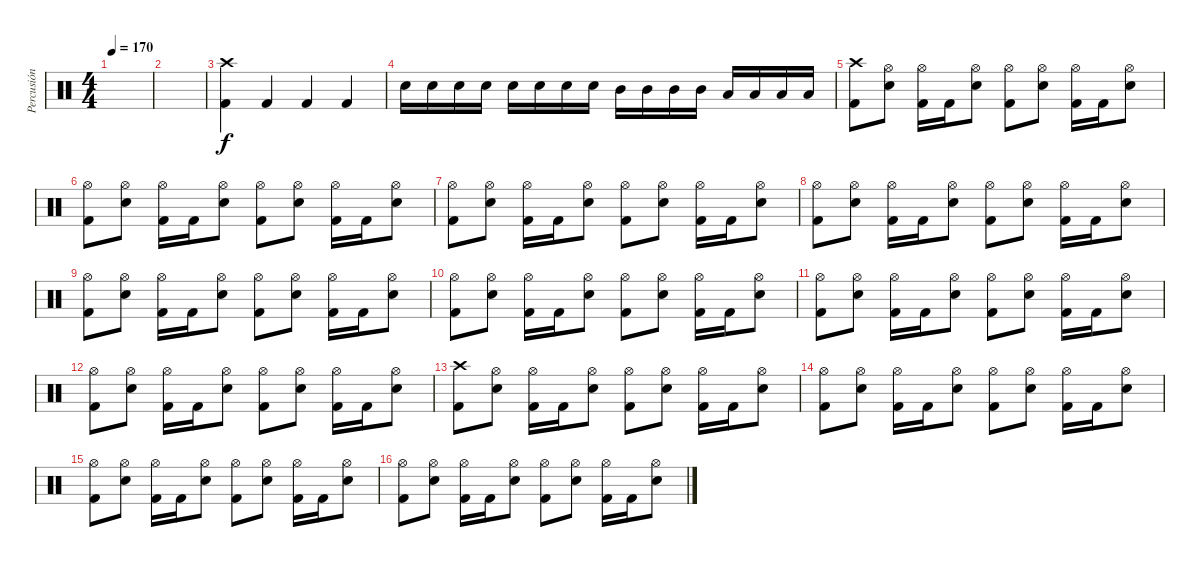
\track ("Percusión" "Percusión") {instrument percussion}
\staff {score}
\articulation defaults
\ts (4 4)
\tempo 170
\clef neutral
\ks c
|
|
("Kick (hit) 2" "Crash high (hit)").4 "Kick (hit) 2".4 "Kick (hit) 2".4 "Kick (hit) 2".4 |
"Snare (hit) 2".16 "Snare (hit) 2".16 "Snare (hit) 2".16 "Snare (hit) 2".16 "Snare (hit) 2".16 "Snare (hit) 2".16 "Snare (hit) 2".16 "Snare (hit) 2".16 "Mid Tom (hit)".16 "Mid Tom (hit)".16 "Mid Tom (hit)".16 "Mid Tom (hit)".16 "Low Tom (hit)".16 "Low Tom (hit)".16 "Low Tom (hit)".16 "Low Tom (hit)".16 |
("Kick (hit) 2" "Crash high (hit)").8 ("Snare (hit) 2" "Hi-Hat (open)").8 ("Kick (hit) 2" "Hi-Hat (open)").16 "Kick (hit) 2".16 ("Snare (hit) 2" "Hi-Hat (open)").8 ("Kick (hit) 2" "Hi-Hat (open)").8 ("Snare (hit) 2" "Hi-Hat (open)").8 ("Kick (hit) 2" "Hi-Hat (open)").16 "Kick (hit) 2".16 ("Snare (hit) 2" "Hi-Hat (open)").8 |
("Kick (hit) 2" "Hi-Hat (open)").8 ("Snare (hit) 2" "Hi-Hat (open)").8 ("Kick (hit) 2" "Hi-Hat (open)").16 "Kick (hit) 2".16 ("Snare (hit) 2" "Hi-Hat (open)").8 ("Kick (hit) 2" "Hi-Hat (open)").8 ("Snare (hit) 2" "Hi-Hat (open)").8 ("Kick (hit) 2" "Hi-Hat (open)").16 "Kick (hit) 2".16 ("Snare (hit) 2" "Hi-Hat (open)").8 |
("Kick (hit) 2" "Hi-Hat (open)").8 ("Snare (hit) 2" "Hi-Hat (open)").8 ("Kick (hit) 2" "Hi-Hat (open)").16 "Kick (hit) 2".16 ("Snare (hit) 2" "Hi-Hat (open)").8 ("Kick (hit) 2" "Hi-Hat (open)").8 ("Snare (hit) 2" "Hi-Hat (open)").8 ("Kick (hit) 2" "Hi-Hat (open)").16 "Kick (hit) 2".16 ("Snare (hit) 2" "Hi-Hat (open)").8 |
("Kick (hit) 2" "Hi-Hat (open)").8 ("Snare (hit) 2" "Hi-Hat (open)").8 ("Kick (hit) 2" "Hi-Hat (open)").16 "Kick (hit) 2".16 ("Snare (hit) 2" "Hi-Hat (open)").8 ("Kick (hit) 2" "Hi-Hat (open)").8 ("Snare (hit) 2" "Hi-Hat (open)").8 ("Kick (hit) 2" "Hi-Hat (open)").16 "Kick (hit) 2".16 ("Snare (hit) 2" "Hi-Hat (open)").8 |
("Kick (hit) 2" "Hi-Hat (open)").8 ("Snare (hit) 2" "Hi-Hat (open)").8 ("Kick (hit) 2" "Hi-Hat (open)").16 "Kick (hit) 2".16 ("Snare (hit) 2" "Hi-Hat (open)").8 ("Kick (hit) 2" "Hi-Hat (open)").8 ("Snare (hit) 2" "Hi-Hat (open)").8 ("Kick (hit) 2" "Hi-Hat (open)").16 "Kick (hit) 2".16 ("Snare (hit) 2" "Hi-Hat (open)").8 |
("Kick (hit) 2" "Hi-Hat (open)").8 ("Snare (hit) 2" "Hi-Hat (open)").8 ("Kick (hit) 2" "Hi-Hat (open)").16 "Kick (hit) 2".16 ("Snare (hit) 2" "Hi-Hat (open)").8 ("Kick (hit) 2" "Hi-Hat (open)").8 ("Snare (hit) 2" "Hi-Hat (open)").8 ("Kick (hit) 2" "Hi-Hat (open)").16 "Kick (hit) 2".16 ("Snare (hit) 2" "Hi-Hat (open)").8 |
("Kick (hit) 2" "Hi-Hat (open)").8 ("Snare (hit) 2" "Hi-Hat (open)").8 ("Kick (hit) 2" "Hi-Hat (open)").16 "Kick (hit) 2".16 ("Snare (hit) 2" "Hi-Hat (open)").8 ("Kick (hit) 2" "Hi-Hat (open)").8 ("Snare (hit) 2" "Hi-Hat (open)").8 ("Kick (hit) 2" "Hi-Hat (open)").16 "Kick (hit) 2".16 ("Snare (hit) 2" "Hi-Hat (open)").8 |
("Kick (hit) 2" "Hi-Hat (open)").8 ("Snare (hit) 2" "Hi-Hat (open)").8 ("Kick (hit) 2" "Hi-Hat (open)").16 "Kick (hit) 2".16 ("Snare (hit) 2" "Hi-Hat (open)").8 ("Kick (hit) 2" "Hi-Hat (open)").8 ("Snare (hit) 2" "Hi-Hat (open)").8 ("Kick (hit) 2" "Hi-Hat (open)").16 "Kick (hit) 2".16 ("Snare (hit) 2" "Hi-Hat (open)").8 |
("Kick (hit) 2" "Crash high (hit)").8 ("Snare (hit) 2" "Hi-Hat (open)").8 ("Kick (hit) 2" "Hi-Hat (open)").16 "Kick (hit) 2".16 ("Snare (hit) 2" "Hi-Hat (open)").8 ("Kick (hit) 2" "Hi-Hat (open)").8 ("Snare (hit) 2" "Hi-Hat (open)").8 ("Kick (hit) 2" "Hi-Hat (open)").16 "Kick (hit) 2".16 ("Snare (hit) 2" "Hi-Hat (open)").8 |
("Kick (hit) 2" "Hi-Hat (open)").8 ("Snare (hit) 2" "Hi-Hat (open)").8 ("Kick (hit) 2" "Hi-Hat (open)").16 "Kick (hit) 2".16 ("Snare (hit) 2" "Hi-Hat (open)").8 ("Kick (hit) 2" "Hi-Hat (open)").8 ("Snare (hit) 2" "Hi-Hat (open)").8 ("Kick (hit) 2" "Hi-Hat (open)").16 "Kick (hit) 2".16 ("Snare (hit) 2" "Hi-Hat (open)").8 |
("Kick (hit) 2" "Hi-Hat (open)").8 ("Snare (hit) 2" "Hi-Hat (open)").8 ("Kick (hit) 2" "Hi-Hat (open)").16 "Kick (hit) 2".16 ("Snare (hit) 2" "Hi-Hat (open)").8 ("Kick (hit) 2" "Hi-Hat (open)").8 ("Snare (hit) 2" "Hi-Hat (open)").8 ("Kick (hit) 2" "Hi-Hat (open)").16 "Kick (hit) 2".16 ("Snare (hit) 2" "Hi-Hat (open)").8 |
("Kick (hit) 2" "Hi-Hat (open)").8 ("Snare (hit) 2" "Hi-Hat (open)").8 ("Kick (hit) 2" "Hi-Hat (open)").16 "Kick (hit) 2".16 ("Snare (hit) 2" "Hi-Hat (open)").8 ("Kick (hit) 2" "Hi-Hat (open)").8 ("Snare (hit) 2" "Hi-Hat (open)").8 ("Kick (hit) 2" "Hi-Hat (open)").16 "Kick (hit) 2".16 ("Snare (hit) 2" "Hi-Hat (open)").8
